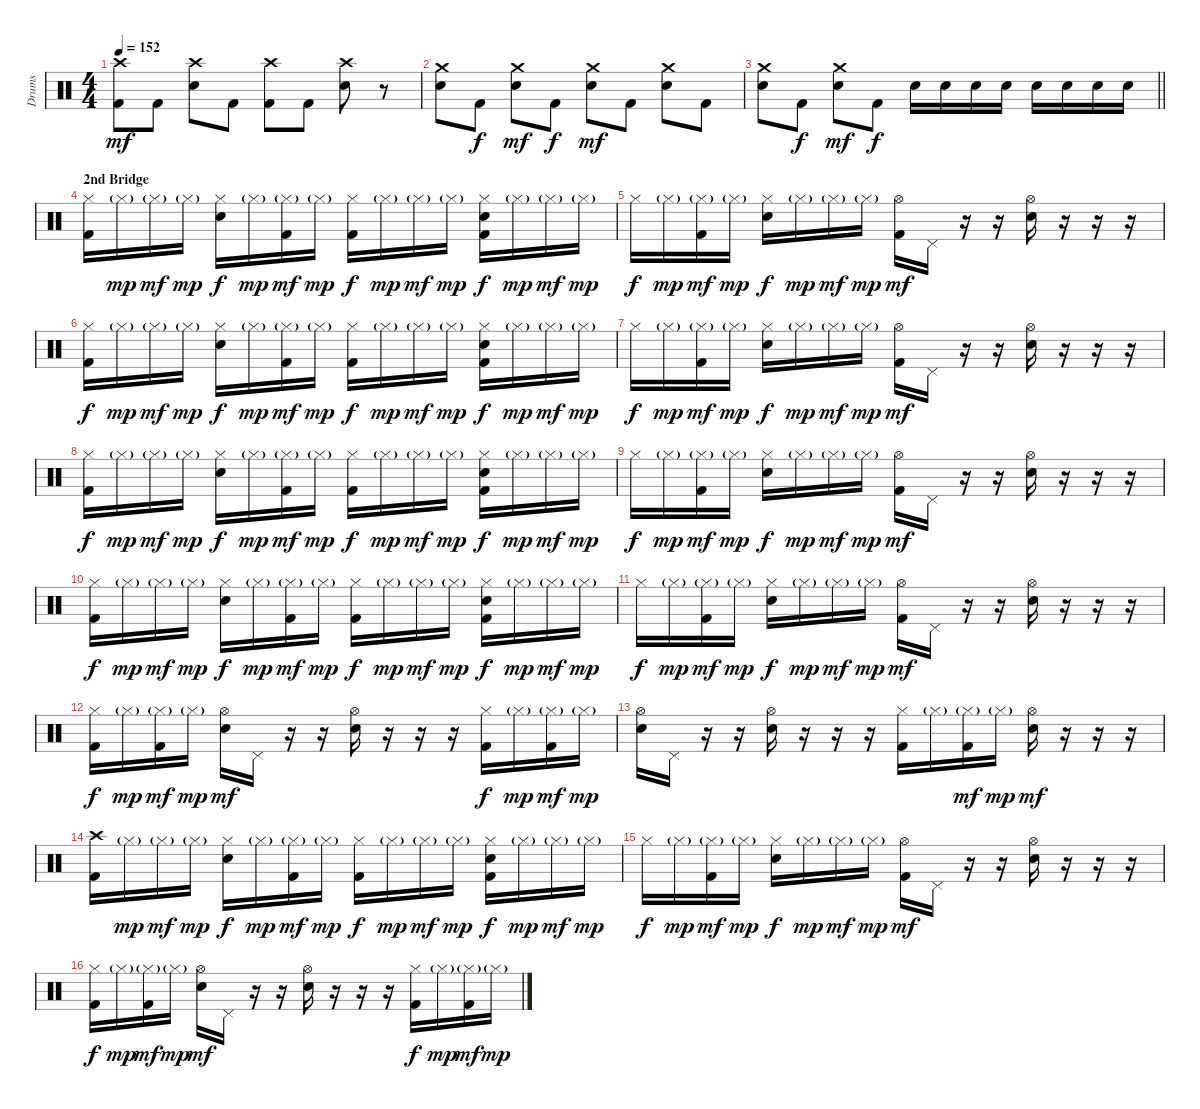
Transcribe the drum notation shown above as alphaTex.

\track ("Drums" "Drums") {instrument percussion}
\staff {score}
\articulation defaults
\ts (4 4)
\tempo 152
\clef neutral
\ks c
("Crash high (hit)" "Kick (hit) 2").8{dy mf} "Kick (hit) 2".8 ("Crash high (hit)" "Snare (hit) 2").8 "Kick (hit) 2".8 ("Crash high (hit)" "Kick (hit) 2").8 "Kick (hit) 2".8 ("Crash high (hit)" "Snare (hit) 2").8 r.8 |
("Crash medium (hit)" "Snare (hit) 2").8 "Kick (hit) 2".8{dy f} ("Crash medium (hit)" "Snare (hit) 2").8{dy mf} "Kick (hit) 2".8{dy f} ("Crash medium (hit)" "Snare (hit) 2").8{dy mf} "Kick (hit) 2".8 ("Crash medium (hit)" "Snare (hit) 2").8 "Kick (hit) 2".8 |
\barLineRight lightlight
("Crash medium (hit)" "Snare (hit) 2").8 "Kick (hit) 2".8{dy f} ("Crash medium (hit)" "Snare (hit) 2").8{dy mf} "Kick (hit) 2".8{dy f} "Snare (hit) 2".16 "Snare (hit) 2".16 "Snare (hit) 2".16 "Snare (hit) 2".16 "Snare (hit) 2".16 "Snare (hit) 2".16 "Snare (hit) 2".16 "Snare (hit) 2".16 |
\section ("" "2nd Bridge")
("Hi-Hat (closed)" "Kick (hit) 2").16 "Hi-Hat (closed)"{g}.16{dy mp} "Hi-Hat (closed)"{g}.16{dy mf} "Hi-Hat (closed)"{g}.16{dy mp} ("Hi-Hat (closed)" "Snare (hit) 2").16{dy f} "Hi-Hat (closed)"{g}.16{dy mp} ("Hi-Hat (closed)"{g} "Kick (hit) 2").16{dy mf} "Hi-Hat (closed)"{g}.16{dy mp} ("Hi-Hat (closed)" "Kick (hit) 2").16{dy f} "Hi-Hat (closed)"{g}.16{dy mp} "Hi-Hat (closed)"{g}.16{dy mf} "Hi-Hat (closed)"{g}.16{dy mp} ("Hi-Hat (closed)" "Snare (hit) 2" "Kick (hit) 2").16{dy f} "Hi-Hat (closed)"{g}.16{dy mp} "Hi-Hat (closed)"{g}.16{dy mf} "Hi-Hat (closed)"{g}.16{dy mp} |
"Hi-Hat (closed)".16{dy f} "Hi-Hat (closed)"{g}.16{dy mp} ("Hi-Hat (closed)"{g} "Kick (hit) 2").16{dy mf} "Hi-Hat (closed)"{g}.16{dy mp} ("Hi-Hat (closed)" "Snare (hit) 2").16{dy f} "Hi-Hat (closed)"{g}.16{dy mp} "Hi-Hat (closed)"{g}.16{dy mf} "Hi-Hat (closed)"{g}.16{dy mp} ("Hi-Hat (open)" "Kick (hit) 2").16{dy mf} "Pedal Hi-Hat (hit)".16 r.16 r.16 ("Hi-Hat (open)" "Snare (hit) 2").16 r.16 r.16 r.16 |
("Hi-Hat (closed)" "Kick (hit) 2").16{dy f} "Hi-Hat (closed)"{g}.16{dy mp} "Hi-Hat (closed)"{g}.16{dy mf} "Hi-Hat (closed)"{g}.16{dy mp} ("Hi-Hat (closed)" "Snare (hit) 2").16{dy f} "Hi-Hat (closed)"{g}.16{dy mp} ("Hi-Hat (closed)"{g} "Kick (hit) 2").16{dy mf} "Hi-Hat (closed)"{g}.16{dy mp} ("Hi-Hat (closed)" "Kick (hit) 2").16{dy f} "Hi-Hat (closed)"{g}.16{dy mp} "Hi-Hat (closed)"{g}.16{dy mf} "Hi-Hat (closed)"{g}.16{dy mp} ("Hi-Hat (closed)" "Snare (hit) 2" "Kick (hit) 2").16{dy f} "Hi-Hat (closed)"{g}.16{dy mp} "Hi-Hat (closed)"{g}.16{dy mf} "Hi-Hat (closed)"{g}.16{dy mp} |
"Hi-Hat (closed)".16{dy f} "Hi-Hat (closed)"{g}.16{dy mp} ("Hi-Hat (closed)"{g} "Kick (hit) 2").16{dy mf} "Hi-Hat (closed)"{g}.16{dy mp} ("Hi-Hat (closed)" "Snare (hit) 2").16{dy f} "Hi-Hat (closed)"{g}.16{dy mp} "Hi-Hat (closed)"{g}.16{dy mf} "Hi-Hat (closed)"{g}.16{dy mp} ("Hi-Hat (open)" "Kick (hit) 2").16{dy mf} "Pedal Hi-Hat (hit)".16 r.16 r.16 ("Hi-Hat (open)" "Snare (hit) 2").16 r.16 r.16 r.16 |
("Hi-Hat (closed)" "Kick (hit) 2").16{dy f} "Hi-Hat (closed)"{g}.16{dy mp} "Hi-Hat (closed)"{g}.16{dy mf} "Hi-Hat (closed)"{g}.16{dy mp} ("Hi-Hat (closed)" "Snare (hit) 2").16{dy f} "Hi-Hat (closed)"{g}.16{dy mp} ("Hi-Hat (closed)"{g} "Kick (hit) 2").16{dy mf} "Hi-Hat (closed)"{g}.16{dy mp} ("Hi-Hat (closed)" "Kick (hit) 2").16{dy f} "Hi-Hat (closed)"{g}.16{dy mp} "Hi-Hat (closed)"{g}.16{dy mf} "Hi-Hat (closed)"{g}.16{dy mp} ("Hi-Hat (closed)" "Snare (hit) 2" "Kick (hit) 2").16{dy f} "Hi-Hat (closed)"{g}.16{dy mp} "Hi-Hat (closed)"{g}.16{dy mf} "Hi-Hat (closed)"{g}.16{dy mp} |
"Hi-Hat (closed)".16{dy f} "Hi-Hat (closed)"{g}.16{dy mp} ("Hi-Hat (closed)"{g} "Kick (hit) 2").16{dy mf} "Hi-Hat (closed)"{g}.16{dy mp} ("Hi-Hat (closed)" "Snare (hit) 2").16{dy f} "Hi-Hat (closed)"{g}.16{dy mp} "Hi-Hat (closed)"{g}.16{dy mf} "Hi-Hat (closed)"{g}.16{dy mp} ("Hi-Hat (open)" "Kick (hit) 2").16{dy mf} "Pedal Hi-Hat (hit)".16 r.16 r.16 ("Hi-Hat (open)" "Snare (hit) 2").16 r.16 r.16 r.16 |
("Hi-Hat (closed)" "Kick (hit) 2").16{dy f} "Hi-Hat (closed)"{g}.16{dy mp} "Hi-Hat (closed)"{g}.16{dy mf} "Hi-Hat (closed)"{g}.16{dy mp} ("Hi-Hat (closed)" "Snare (hit) 2").16{dy f} "Hi-Hat (closed)"{g}.16{dy mp} ("Hi-Hat (closed)"{g} "Kick (hit) 2").16{dy mf} "Hi-Hat (closed)"{g}.16{dy mp} ("Hi-Hat (closed)" "Kick (hit) 2").16{dy f} "Hi-Hat (closed)"{g}.16{dy mp} "Hi-Hat (closed)"{g}.16{dy mf} "Hi-Hat (closed)"{g}.16{dy mp} ("Hi-Hat (closed)" "Snare (hit) 2" "Kick (hit) 2").16{dy f} "Hi-Hat (closed)"{g}.16{dy mp} "Hi-Hat (closed)"{g}.16{dy mf} "Hi-Hat (closed)"{g}.16{dy mp} |
"Hi-Hat (closed)".16{dy f} "Hi-Hat (closed)"{g}.16{dy mp} ("Hi-Hat (closed)"{g} "Kick (hit) 2").16{dy mf} "Hi-Hat (closed)"{g}.16{dy mp} ("Hi-Hat (closed)" "Snare (hit) 2").16{dy f} "Hi-Hat (closed)"{g}.16{dy mp} "Hi-Hat (closed)"{g}.16{dy mf} "Hi-Hat (closed)"{g}.16{dy mp} ("Hi-Hat (open)" "Kick (hit) 2").16{dy mf} "Pedal Hi-Hat (hit)".16 r.16 r.16 ("Hi-Hat (open)" "Snare (hit) 2").16 r.16 r.16 r.16 |
("Hi-Hat (closed)" "Kick (hit) 2").16{dy f} "Hi-Hat (closed)"{g}.16{dy mp} ("Hi-Hat (closed)"{g} "Kick (hit) 2").16{dy mf} "Hi-Hat (closed)"{g}.16{dy mp} ("Hi-Hat (open)" "Snare (hit) 2").16{dy mf} "Pedal Hi-Hat (hit)".16 r.16 r.16 ("Hi-Hat (open)" "Snare (hit) 2").16 r.16 r.16 r.16 ("Hi-Hat (closed)" "Kick (hit) 2").16{dy f} "Hi-Hat (closed)"{g}.16{dy mp} ("Hi-Hat (closed)"{g} "Kick (hit) 2").16{dy mf} "Hi-Hat (closed)"{g}.16{dy mp} |
("Hi-Hat (open)" "Snare (hit) 2").16 "Pedal Hi-Hat (hit)".16 r.16 r.16 ("Hi-Hat (open)" "Snare (hit) 2").16 r.16 r.16 r.16 ("Hi-Hat (closed)" "Kick (hit) 2").16 "Hi-Hat (closed)"{g}.16 ("Hi-Hat (closed)"{g} "Kick (hit) 2").16{dy mf} "Hi-Hat (closed)"{g}.16{dy mp} ("Hi-Hat (open)" "Snare (hit) 2").16{dy mf} r.16 r.16 r.16 |
("Crash high (hit)" "Kick (hit) 2").16 "Hi-Hat (closed)"{g}.16{dy mp} "Hi-Hat (closed)"{g}.16{dy mf} "Hi-Hat (closed)"{g}.16{dy mp} ("Hi-Hat (closed)" "Snare (hit) 2").16{dy f} "Hi-Hat (closed)"{g}.16{dy mp} ("Hi-Hat (closed)"{g} "Kick (hit) 2").16{dy mf} "Hi-Hat (closed)"{g}.16{dy mp} ("Hi-Hat (closed)" "Kick (hit) 2").16{dy f} "Hi-Hat (closed)"{g}.16{dy mp} "Hi-Hat (closed)"{g}.16{dy mf} "Hi-Hat (closed)"{g}.16{dy mp} ("Hi-Hat (closed)" "Snare (hit) 2" "Kick (hit) 2").16{dy f} "Hi-Hat (closed)"{g}.16{dy mp} "Hi-Hat (closed)"{g}.16{dy mf} "Hi-Hat (closed)"{g}.16{dy mp} |
"Hi-Hat (closed)".16{dy f} "Hi-Hat (closed)"{g}.16{dy mp} ("Hi-Hat (closed)"{g} "Kick (hit) 2").16{dy mf} "Hi-Hat (closed)"{g}.16{dy mp} ("Hi-Hat (closed)" "Snare (hit) 2").16{dy f} "Hi-Hat (closed)"{g}.16{dy mp} "Hi-Hat (closed)"{g}.16{dy mf} "Hi-Hat (closed)"{g}.16{dy mp} ("Hi-Hat (open)" "Kick (hit) 2").16{dy mf} "Pedal Hi-Hat (hit)".16 r.16 r.16 ("Hi-Hat (open)" "Snare (hit) 2").16 r.16 r.16 r.16 |
("Hi-Hat (closed)" "Kick (hit) 2").16{dy f} "Hi-Hat (closed)"{g}.16{dy mp} ("Hi-Hat (closed)"{g} "Kick (hit) 2").16{dy mf} "Hi-Hat (closed)"{g}.16{dy mp} ("Hi-Hat (open)" "Snare (hit) 2").16{dy mf} "Pedal Hi-Hat (hit)".16 r.16 r.16 ("Hi-Hat (open)" "Snare (hit) 2").16 r.16 r.16 r.16 ("Hi-Hat (closed)" "Kick (hit) 2").16{dy f} "Hi-Hat (closed)"{g}.16{dy mp} ("Hi-Hat (closed)"{g} "Kick (hit) 2").16{dy mf} "Hi-Hat (closed)"{g}.16{dy mp}
